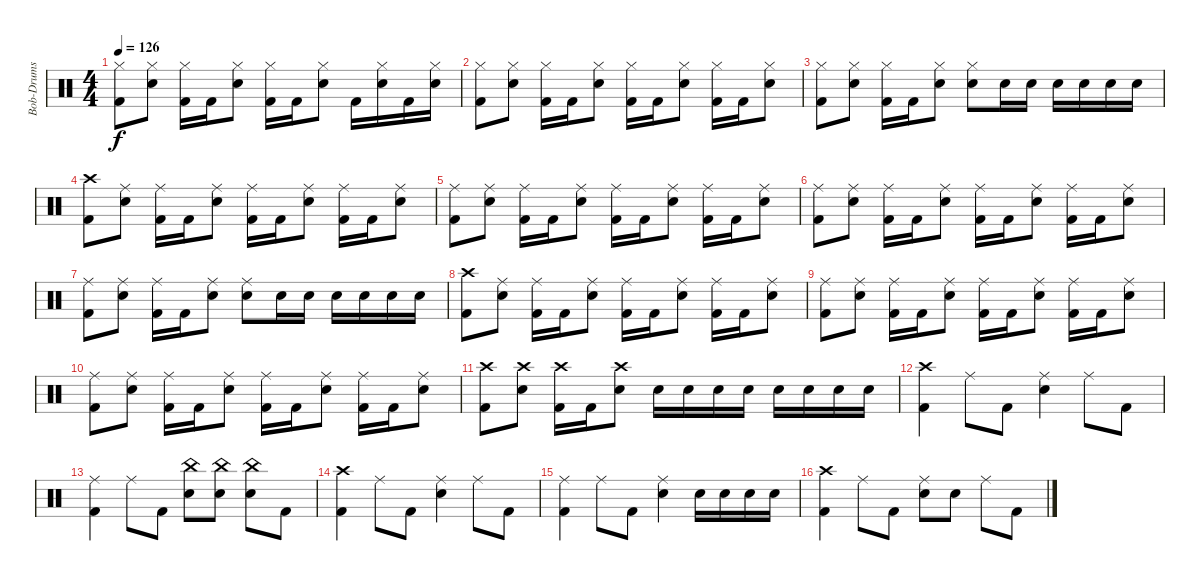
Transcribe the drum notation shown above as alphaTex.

\track ("Bob-Drums" "Bob-Drums") {instrument percussion}
\staff {score}
\articulation defaults
\ts (4 4)
\tempo 126
\clef neutral
\ks c
("Hi-Hat (closed)" "Kick (hit) 2").8{dy f} ("Hi-Hat (closed)" "Snare (hit) 2").8 ("Hi-Hat (closed)" "Kick (hit) 2").16 "Kick (hit) 2".16 ("Hi-Hat (closed)" "Snare (hit) 2").8 ("Hi-Hat (closed)" "Kick (hit) 2").16 "Kick (hit) 2".16 ("Hi-Hat (closed)" "Snare (hit) 2").8 "Kick (hit) 2".16 ("Hi-Hat (closed)" "Snare (hit) 2").16 "Kick (hit) 2".16 ("Hi-Hat (closed)" "Snare (hit) 2").16 |
("Hi-Hat (closed)" "Kick (hit) 2").8 ("Hi-Hat (closed)" "Snare (hit) 2").8 ("Hi-Hat (closed)" "Kick (hit) 2").16 "Kick (hit) 2".16 ("Hi-Hat (closed)" "Snare (hit) 2").8 ("Hi-Hat (closed)" "Kick (hit) 2").16 "Kick (hit) 2".16 ("Hi-Hat (closed)" "Snare (hit) 2").8 ("Hi-Hat (closed)" "Kick (hit) 2").16 "Kick (hit) 2".16 ("Hi-Hat (closed)" "Snare (hit) 2").8 |
("Hi-Hat (closed)" "Kick (hit) 2").8 ("Hi-Hat (closed)" "Snare (hit) 2").8 ("Hi-Hat (closed)" "Kick (hit) 2").16 "Kick (hit) 2".16 ("Hi-Hat (closed)" "Snare (hit) 2").8 ("Hi-Hat (closed)" "Snare (hit) 2").8 "Snare (hit) 2".16 "Snare (hit) 2".16 "Snare (hit) 2".16 "Snare (hit) 2".16 "Snare (hit) 2".16 "Snare (hit) 2".16 |
("Crash high (hit)" "Kick (hit) 2").8 ("Ride (middle)" "Snare (hit) 2").8 ("Ride (middle)" "Kick (hit) 2").16 "Kick (hit) 2".16 ("Ride (middle)" "Snare (hit) 2").8 ("Ride (middle)" "Kick (hit) 2").16 "Kick (hit) 2".16 ("Ride (middle)" "Snare (hit) 2").8 ("Ride (middle)" "Kick (hit) 2").16 "Kick (hit) 2".16 ("Ride (middle)" "Snare (hit) 2").8 |
("Ride (middle)" "Kick (hit) 2").8 ("Ride (middle)" "Snare (hit) 2").8 ("Ride (middle)" "Kick (hit) 2").16 "Kick (hit) 2".16 ("Ride (middle)" "Snare (hit) 2").8 ("Ride (middle)" "Kick (hit) 2").16 "Kick (hit) 2".16 ("Ride (middle)" "Snare (hit) 2").8 ("Ride (middle)" "Kick (hit) 2").16 "Kick (hit) 2".16 ("Ride (middle)" "Snare (hit) 2").8 |
("Ride (middle)" "Kick (hit) 2").8 ("Ride (middle)" "Snare (hit) 2").8 ("Ride (middle)" "Kick (hit) 2").16 "Kick (hit) 2".16 ("Ride (middle)" "Snare (hit) 2").8 ("Ride (middle)" "Kick (hit) 2").16 "Kick (hit) 2".16 ("Ride (middle)" "Snare (hit) 2").8 ("Ride (middle)" "Kick (hit) 2").16 "Kick (hit) 2".16 ("Ride (middle)" "Snare (hit) 2").8 |
("Ride (middle)" "Kick (hit) 2").8 ("Ride (middle)" "Snare (hit) 2").8 ("Ride (middle)" "Kick (hit) 2").16 "Kick (hit) 2".16 ("Ride (middle)" "Snare (hit) 2").8 ("Ride (middle)" "Snare (hit) 2").8 "Snare (hit) 2".16 "Snare (hit) 2".16 "Snare (hit) 2".16 "Snare (hit) 2".16 "Snare (hit) 2".16 "Snare (hit) 2".16 |
("Crash high (hit)" "Kick (hit) 2").8 ("Ride (middle)" "Snare (hit) 2").8 ("Ride (middle)" "Kick (hit) 2").16 "Kick (hit) 2".16 ("Ride (middle)" "Snare (hit) 2").8 ("Ride (middle)" "Kick (hit) 2").16 "Kick (hit) 2".16 ("Ride (middle)" "Snare (hit) 2").8 ("Ride (middle)" "Kick (hit) 2").16 "Kick (hit) 2".16 ("Ride (middle)" "Snare (hit) 2").8 |
("Ride (middle)" "Kick (hit) 2").8 ("Ride (middle)" "Snare (hit) 2").8 ("Ride (middle)" "Kick (hit) 2").16 "Kick (hit) 2".16 ("Ride (middle)" "Snare (hit) 2").8 ("Ride (middle)" "Kick (hit) 2").16 "Kick (hit) 2".16 ("Ride (middle)" "Snare (hit) 2").8 ("Ride (middle)" "Kick (hit) 2").16 "Kick (hit) 2".16 ("Ride (middle)" "Snare (hit) 2").8 |
("Ride (middle)" "Kick (hit) 2").8 ("Ride (middle)" "Snare (hit) 2").8 ("Ride (middle)" "Kick (hit) 2").16 "Kick (hit) 2".16 ("Ride (middle)" "Snare (hit) 2").8 ("Ride (middle)" "Kick (hit) 2").16 "Kick (hit) 2".16 ("Ride (middle)" "Snare (hit) 2").8 ("Ride (middle)" "Kick (hit) 2").16 "Kick (hit) 2".16 ("Ride (middle)" "Snare (hit) 2").8 |
("Crash high (hit)" "Kick (hit) 2").8 ("Crash high (hit)" "Snare (hit) 2").8 ("Crash high (hit)" "Kick (hit) 2").16 "Kick (hit) 2".16 ("Crash high (hit)" "Snare (hit) 2").8 "Snare (hit) 2".16 "Snare (hit) 2".16 "Snare (hit) 2".16 "Snare (hit) 2".16 "Snare (hit) 2".16 "Snare (hit) 2".16 "Snare (hit) 2".16 "Snare (hit) 2".16 |
("Crash high (hit)" "Kick (hit) 2").4 "Ride (middle)".8 "Kick (hit) 2".8 ("Ride (middle)" "Snare (hit) 2").4 "Ride (middle)".8 "Kick (hit) 2".8 |
("Ride (middle)" "Kick (hit) 2").4 "Ride (middle)".8 "Kick (hit) 2".8 ("China (hit)" "Snare (hit) 2").8 ("China (hit)" "Snare (hit) 2").8 ("China (hit)" "Snare (hit) 2").8 "Kick (hit) 2".8 |
("Crash high (hit)" "Kick (hit) 2").4 "Ride (middle)".8 "Kick (hit) 2".8 ("Ride (middle)" "Snare (hit) 2").4 "Ride (middle)".8 "Kick (hit) 2".8 |
("Ride (middle)" "Kick (hit) 2").4 "Ride (middle)".8 "Kick (hit) 2".8 ("Ride (middle)" "Snare (hit) 2").4 "Snare (hit) 2".16 "Snare (hit) 2".16 "Snare (hit) 2".16 "Snare (hit) 2".16 |
("Crash high (hit)" "Kick (hit) 2").4 "Ride (middle)".8 "Kick (hit) 2".8 ("Ride (middle)" "Snare (hit) 2").8 "Snare (hit) 2".8 "Ride (middle)".8 "Kick (hit) 2".8
